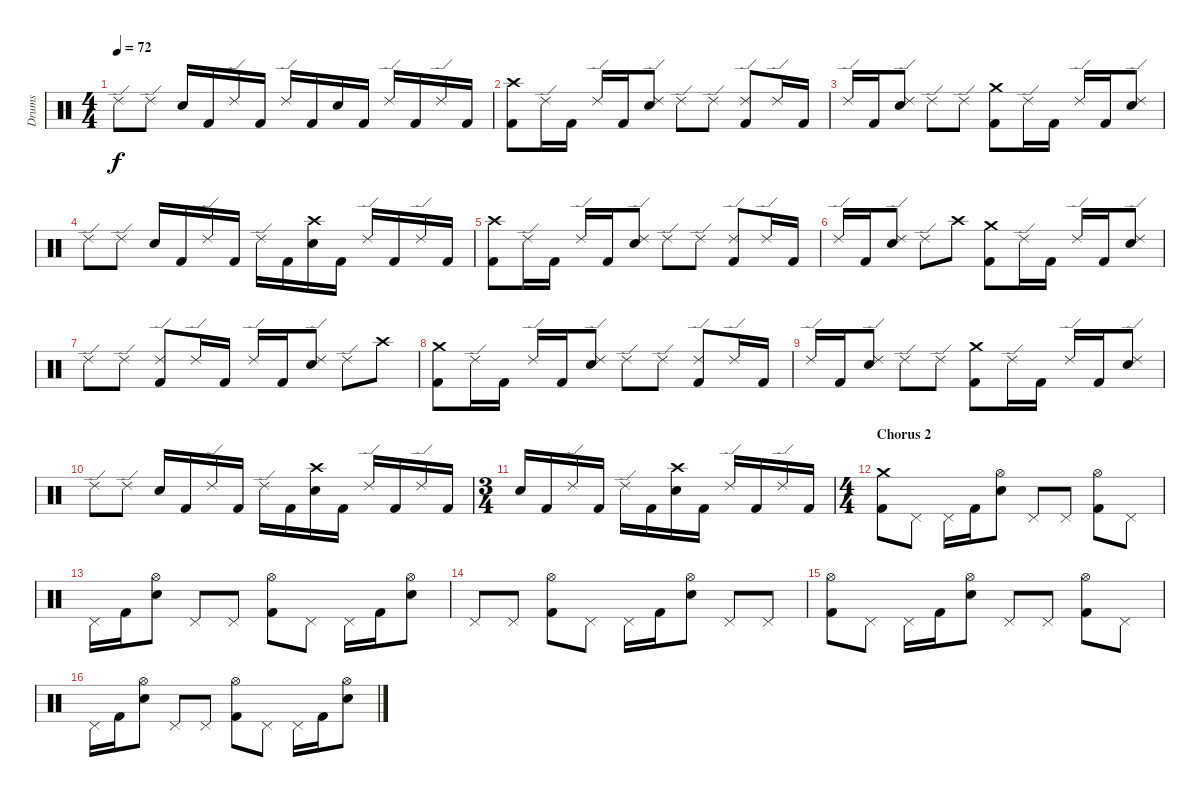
\track ("Drums" "Drums") {instrument percussion}
\staff {score}
\articulation defaults
\ts (4 4)
\tempo 72
\clef neutral
\ks c "Ride (edge) 2".8{dy f} "Ride (edge) 2".8 "Electric Snare (hit)".16 "Kick (hit) 2".16 "Ride (edge) 2".16 "Kick (hit) 2".16 "Ride (edge) 2".16 "Kick (hit) 2".16 "Electric Snare (hit)".16 "Kick (hit) 2".16 "Ride (edge) 2".16 "Kick (hit) 2".16 "Ride (edge) 2".16 "Kick (hit) 2".16
|
("Crash high (hit)" "Kick (hit) 2").8 "Ride (edge) 2".16 "Kick (hit) 2".16 "Ride (edge) 2".16 "Kick (hit) 2".16 ("Ride (edge) 2" "Electric Snare (hit)").8 "Ride (edge) 2".8 "Ride (edge) 2".8 ("Ride (edge) 2" "Kick (hit) 2").8 "Ride (edge) 2".16 "Kick (hit) 2".16 |
"Ride (edge) 2".16 "Kick (hit) 2".16 ("Ride (edge) 2" "Electric Snare (hit)").8 "Ride (edge) 2".8 "Ride (edge) 2".8 ("Crash medium (hit)" "Kick (hit) 2").8 "Ride (edge) 2".16 "Kick (hit) 2".16 "Ride (edge) 2".16 "Kick (hit) 2".16 ("Ride (edge) 2" "Electric Snare (hit)").8 |
"Ride (edge) 2".8 "Ride (edge) 2".8 "Electric Snare (hit)".16 "Kick (hit) 2".16 "Ride (edge) 2".16 "Kick (hit) 2".16 "Ride (edge) 2".16 "Kick (hit) 2".16 ("Crash high (hit)" "Electric Snare (hit)").16 "Kick (hit) 2".16 "Ride (edge) 2".16 "Kick (hit) 2".16 "Ride (edge) 2".16 "Kick (hit) 2".16 |
("Crash high (hit)" "Kick (hit) 2").8 "Ride (edge) 2".16 "Kick (hit) 2".16 "Ride (edge) 2".16 "Kick (hit) 2".16 ("Ride (edge) 2" "Electric Snare (hit)").8 "Ride (edge) 2".8 "Ride (edge) 2".8 ("Ride (edge) 2" "Kick (hit) 2").8 "Ride (edge) 2".16 "Kick (hit) 2".16 |
"Ride (edge) 2".16 "Kick (hit) 2".16 ("Ride (edge) 2" "Electric Snare (hit)").8 "Ride (edge) 2".8 "Crash high (hit)".8 ("Crash medium (hit)" "Kick (hit) 2").8 "Ride (edge) 2".16 "Kick (hit) 2".16 "Ride (edge) 2".16 "Kick (hit) 2".16 ("Ride (edge) 2" "Electric Snare (hit)").8 |
"Ride (edge) 2".8 "Ride (edge) 2".8 ("Ride (edge) 2" "Kick (hit) 2").8 "Ride (edge) 2".16 "Kick (hit) 2".16 "Ride (edge) 2".16 "Kick (hit) 2".16 ("Ride (edge) 2" "Electric Snare (hit)").8 "Ride (edge) 2".8 "Crash high (hit)".8 |
("Crash medium (hit)" "Kick (hit) 2").8 "Ride (edge) 2".16 "Kick (hit) 2".16 "Ride (edge) 2".16 "Kick (hit) 2".16 ("Ride (edge) 2" "Electric Snare (hit)").8 "Ride (edge) 2".8 "Ride (edge) 2".8 ("Ride (edge) 2" "Kick (hit) 2").8 "Ride (edge) 2".16 "Kick (hit) 2".16 |
"Ride (edge) 2".16 "Kick (hit) 2".16 ("Ride (edge) 2" "Electric Snare (hit)").8 "Ride (edge) 2".8 "Ride (edge) 2".8 ("Crash medium (hit)" "Kick (hit) 2").8 "Ride (edge) 2".16 "Kick (hit) 2".16 "Ride (edge) 2".16 "Kick (hit) 2".16 ("Ride (edge) 2" "Electric Snare (hit)").8 |
"Ride (edge) 2".8 "Ride (edge) 2".8 "Electric Snare (hit)".16 "Kick (hit) 2".16 "Ride (edge) 2".16 "Kick (hit) 2".16 "Ride (edge) 2".16 "Kick (hit) 2".16 ("Crash high (hit)" "Electric Snare (hit)").16 "Kick (hit) 2".16 "Ride (edge) 2".16 "Kick (hit) 2".16 "Ride (edge) 2".16 "Kick (hit) 2".16 |
\ts (3 4)
"Electric Snare (hit)".16 "Kick (hit) 2".16 "Ride (edge) 2".16 "Kick (hit) 2".16 "Ride (edge) 2".16 "Kick (hit) 2".16 ("Crash high (hit)" "Electric Snare (hit)").16 "Kick (hit) 2".16 "Ride (edge) 2".16 "Kick (hit) 2".16 "Ride (edge) 2".16 "Kick (hit) 2".16 |
\ts (4 4)
\section ("" "Chorus 2")
("Crash medium (hit)" "Kick (hit) 2").8 "Pedal Hi-Hat (hit)".8 "Pedal Hi-Hat (hit)".16 "Kick (hit) 2".16 ("Hi-Hat (open)" "Electric Snare (hit)").8 "Pedal Hi-Hat (hit)".8 "Pedal Hi-Hat (hit)".8 ("Hi-Hat (open)" "Kick (hit) 2").8 "Pedal Hi-Hat (hit)".8 |
"Pedal Hi-Hat (hit)".16 "Kick (hit) 2".16 ("Hi-Hat (open)" "Electric Snare (hit)").8 "Pedal Hi-Hat (hit)".8 "Pedal Hi-Hat (hit)".8 ("Hi-Hat (open)" "Kick (hit) 2").8 "Pedal Hi-Hat (hit)".8 "Pedal Hi-Hat (hit)".16 "Kick (hit) 2".16 ("Hi-Hat (open)" "Electric Snare (hit)").8 |
"Pedal Hi-Hat (hit)".8 "Pedal Hi-Hat (hit)".8 ("Hi-Hat (open)" "Kick (hit) 2").8 "Pedal Hi-Hat (hit)".8 "Pedal Hi-Hat (hit)".16 "Kick (hit) 2".16 ("Hi-Hat (open)" "Electric Snare (hit)").8 "Pedal Hi-Hat (hit)".8 "Pedal Hi-Hat (hit)".8 |
("Hi-Hat (open)" "Kick (hit) 2").8 "Pedal Hi-Hat (hit)".8 "Pedal Hi-Hat (hit)".16 "Kick (hit) 2".16 ("Hi-Hat (open)" "Electric Snare (hit)").8 "Pedal Hi-Hat (hit)".8 "Pedal Hi-Hat (hit)".8 ("Hi-Hat (open)" "Kick (hit) 2").8 "Pedal Hi-Hat (hit)".8 |
"Pedal Hi-Hat (hit)".16 "Kick (hit) 2".16 ("Hi-Hat (open)" "Electric Snare (hit)").8 "Pedal Hi-Hat (hit)".8 "Pedal Hi-Hat (hit)".8 ("Hi-Hat (open)" "Kick (hit) 2").8 "Pedal Hi-Hat (hit)".8 "Pedal Hi-Hat (hit)".16 "Kick (hit) 2".16 ("Hi-Hat (open)" "Electric Snare (hit)").8
